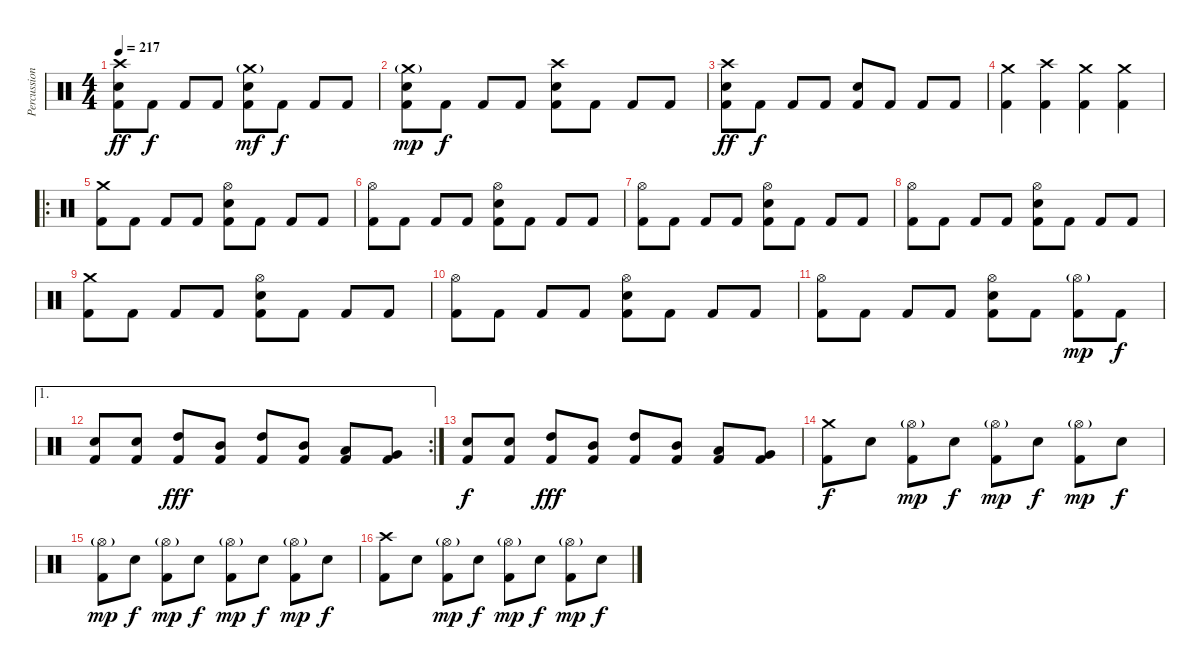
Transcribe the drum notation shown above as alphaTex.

\track ("Percussion" "Percussion") {instrument percussion}
\staff {score}
\articulation defaults
\ts (4 4)
\tempo 217
\clef neutral
\ks c
("Crash high (hit)" "Electric Snare (hit)" "Kick (hit) 2").8{dy ff} "Kick (hit) 2".8{dy f} "Kick (hit) 2".8 "Kick (hit) 2".8 ("Crash medium (hit)"{g} "Electric Snare (hit)" "Kick (hit) 2").8{dy mf} "Kick (hit) 2".8{dy f} "Kick (hit) 2".8 "Kick (hit) 2".8 |
("Crash medium (hit)"{g} "Electric Snare (hit)" "Kick (hit) 2").8{dy mp} "Kick (hit) 2".8{dy f} "Kick (hit) 2".8 "Kick (hit) 2".8 ("Crash high (hit)" "Electric Snare (hit)" "Kick (hit) 2").8 "Kick (hit) 2".8 "Kick (hit) 2".8 "Kick (hit) 2".8 |
("Crash high (hit)" "Electric Snare (hit)" "Kick (hit) 2").8{dy ff} "Kick (hit) 2".8{dy f} "Kick (hit) 2".8 "Kick (hit) 2".8 ("Electric Snare (hit)" "Kick (hit) 2").8 "Kick (hit) 2".8 "Kick (hit) 2".8 "Kick (hit) 2".8 |
("Crash medium (hit)" "Kick (hit) 2").4 ("Crash high (hit)" "Kick (hit) 2").4 ("Crash medium (hit)" "Kick (hit) 2").4 ("Crash medium (hit)" "Kick (hit) 2").4 |
\ro
("Crash medium (hit)" "Kick (hit) 2").8 "Kick (hit) 2".8 "Kick (hit) 2".8 "Kick (hit) 2".8 ("Hi-Hat (open)" "Electric Snare (hit)" "Kick (hit) 2").8 "Kick (hit) 2".8 "Kick (hit) 2".8 "Kick (hit) 2".8 |
("Hi-Hat (open)" "Kick (hit) 2").8 "Kick (hit) 2".8 "Kick (hit) 2".8 "Kick (hit) 2".8 ("Hi-Hat (open)" "Electric Snare (hit)" "Kick (hit) 2").8 "Kick (hit) 2".8 "Kick (hit) 2".8 "Kick (hit) 2".8 |
("Hi-Hat (open)" "Kick (hit) 2").8 "Kick (hit) 2".8 "Kick (hit) 2".8 "Kick (hit) 2".8 ("Hi-Hat (open)" "Electric Snare (hit)" "Kick (hit) 2").8 "Kick (hit) 2".8 "Kick (hit) 2".8 "Kick (hit) 2".8 |
("Hi-Hat (open)" "Kick (hit) 2").8 "Kick (hit) 2".8 "Kick (hit) 2".8 "Kick (hit) 2".8 ("Hi-Hat (open)" "Electric Snare (hit)" "Kick (hit) 2").8 "Kick (hit) 2".8 "Kick (hit) 2".8 "Kick (hit) 2".8 |
("Crash medium (hit)" "Kick (hit) 2").8 "Kick (hit) 2".8 "Kick (hit) 2".8 "Kick (hit) 2".8 ("Hi-Hat (open)" "Electric Snare (hit)" "Kick (hit) 2").8 "Kick (hit) 2".8 "Kick (hit) 2".8 "Kick (hit) 2".8 |
("Hi-Hat (open)" "Kick (hit) 2").8 "Kick (hit) 2".8 "Kick (hit) 2".8 "Kick (hit) 2".8 ("Hi-Hat (open)" "Electric Snare (hit)" "Kick (hit) 2").8 "Kick (hit) 2".8 "Kick (hit) 2".8 "Kick (hit) 2".8 |
("Hi-Hat (open)" "Kick (hit) 2").8 "Kick (hit) 2".8 "Kick (hit) 2".8 "Kick (hit) 2".8 ("Hi-Hat (open)" "Electric Snare (hit)" "Kick (hit) 2").8 "Kick (hit) 2".8 ("Hi-Hat (open)"{g} "Kick (hit) 2").8{dy mp} "Kick (hit) 2".8{dy f} |
\ae 1
\rc 2
("Electric Snare (hit)" "Kick (hit) 2").8 ("Electric Snare (hit)" "Kick (hit) 2").8 ("High Tom (hit)" "Kick (hit) 2").8{dy fff} ("Mid Tom (hit)" "Kick (hit) 2").8 ("High Tom (hit)" "Kick (hit) 2").8 ("Mid Tom (hit)" "Kick (hit) 2").8 ("Low Tom (hit)" "Kick (hit) 2").8 ("Very Low Tom (hit)" "Kick (hit) 2").8 |
("Electric Snare (hit)" "Kick (hit) 2").8{dy f} ("Electric Snare (hit)" "Kick (hit) 2").8 ("High Tom (hit)" "Kick (hit) 2").8{dy fff} ("Mid Tom (hit)" "Kick (hit) 2").8 ("High Tom (hit)" "Kick (hit) 2").8 ("Mid Tom (hit)" "Kick (hit) 2").8 ("Low Tom (hit)" "Kick (hit) 2").8 ("Very Low Tom (hit)" "Kick (hit) 2").8 |
("Crash medium (hit)" "Kick (hit) 2").8{dy f} "Electric Snare (hit)".8 ("Hi-Hat (open)"{g} "Kick (hit) 2").8{dy mp} "Electric Snare (hit)".8{dy f} ("Hi-Hat (open)"{g} "Kick (hit) 2").8{dy mp} "Electric Snare (hit)".8{dy f} ("Hi-Hat (open)"{g} "Kick (hit) 2").8{dy mp} "Electric Snare (hit)".8{dy f} |
("Hi-Hat (open)"{g} "Kick (hit) 2").8{dy mp} "Electric Snare (hit)".8{dy f} ("Hi-Hat (open)"{g} "Kick (hit) 2").8{dy mp} "Electric Snare (hit)".8{dy f} ("Hi-Hat (open)"{g} "Kick (hit) 2").8{dy mp} "Electric Snare (hit)".8{dy f} ("Hi-Hat (open)"{g} "Kick (hit) 2").8{dy mp} "Electric Snare (hit)".8{dy f} |
("Crash high (hit)" "Kick (hit) 2").8 "Electric Snare (hit)".8 ("Hi-Hat (open)"{g} "Kick (hit) 2").8{dy mp} "Electric Snare (hit)".8{dy f} ("Hi-Hat (open)"{g} "Kick (hit) 2").8{dy mp} "Electric Snare (hit)".8{dy f} ("Hi-Hat (open)"{g} "Kick (hit) 2").8{dy mp} "Electric Snare (hit)".8{dy f}
